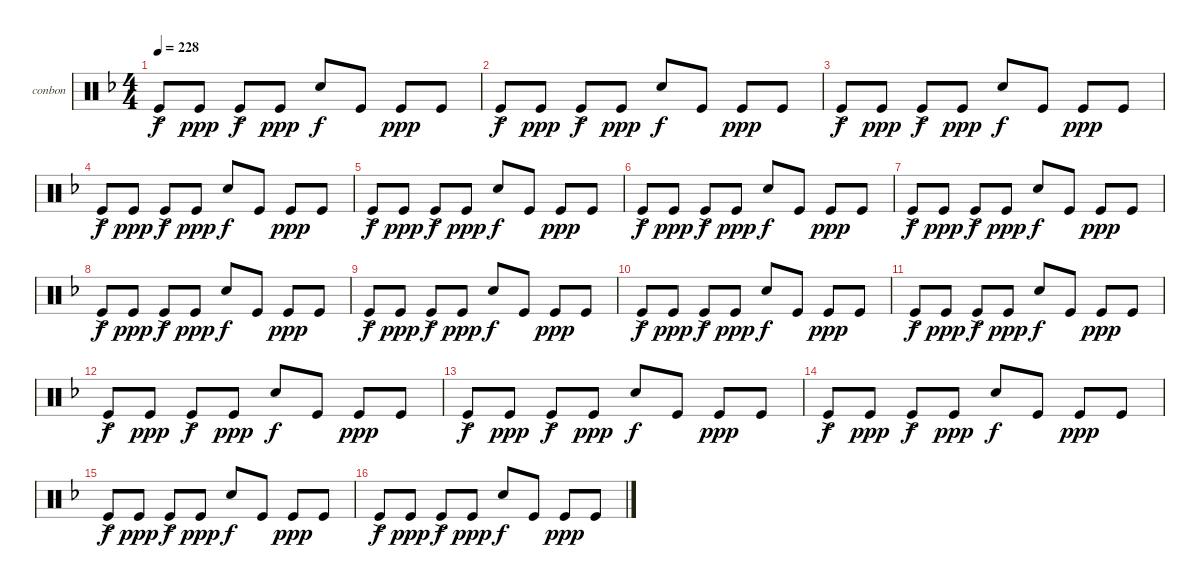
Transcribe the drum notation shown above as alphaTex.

\defaultSystemsLayout 4
\bracketExtendMode groupsimilarinstruments
\firstSystemTrackNameOrientation horizontal
\otherSystemsTrackNameOrientation horizontal
\track ("Bongos N Congas" "conbon") {instrument percussion}
\staff {score}
\articulation defaults
\ts (4 4)
\tempo 228
\clef neutral
\ks dminor "Kick (hit)"{ac}.8{dy f} "Kick (hit)".8{dy ppp} "Kick (hit)"{ac}.8{dy f} "Kick (hit)".8{dy ppp} "Snare (hit) 2".8{dy f} "Kick (hit)".8 "Kick (hit)".8{dy ppp} "Kick (hit)".8
|
"Kick (hit)"{ac}.8{dy f} "Kick (hit)".8{dy ppp} "Kick (hit)"{ac}.8{dy f} "Kick (hit)".8{dy ppp} "Snare (hit) 2".8{dy f} "Kick (hit)".8 "Kick (hit)".8{dy ppp} "Kick (hit)".8 |
"Kick (hit)"{ac}.8{dy f} "Kick (hit)".8{dy ppp} "Kick (hit)"{ac}.8{dy f} "Kick (hit)".8{dy ppp} "Snare (hit) 2".8{dy f} "Kick (hit)".8 "Kick (hit)".8{dy ppp} "Kick (hit)".8 |
"Kick (hit)"{ac}.8{dy f} "Kick (hit)".8{dy ppp} "Kick (hit)"{ac}.8{dy f} "Kick (hit)".8{dy ppp} "Snare (hit) 2".8{dy f} "Kick (hit)".8 "Kick (hit)".8{dy ppp} "Kick (hit)".8 |
"Kick (hit)"{ac}.8{dy f} "Kick (hit)".8{dy ppp} "Kick (hit)"{ac}.8{dy f} "Kick (hit)".8{dy ppp} "Snare (hit) 2".8{dy f} "Kick (hit)".8 "Kick (hit)".8{dy ppp} "Kick (hit)".8 |
"Kick (hit)"{ac}.8{dy f} "Kick (hit)".8{dy ppp} "Kick (hit)"{ac}.8{dy f} "Kick (hit)".8{dy ppp} "Snare (hit) 2".8{dy f} "Kick (hit)".8 "Kick (hit)".8{dy ppp} "Kick (hit)".8 |
"Kick (hit)"{ac}.8{dy f} "Kick (hit)".8{dy ppp} "Kick (hit)"{ac}.8{dy f} "Kick (hit)".8{dy ppp} "Snare (hit) 2".8{dy f} "Kick (hit)".8 "Kick (hit)".8{dy ppp} "Kick (hit)".8 |
"Kick (hit)"{ac}.8{dy f} "Kick (hit)".8{dy ppp} "Kick (hit)"{ac}.8{dy f} "Kick (hit)".8{dy ppp} "Snare (hit) 2".8{dy f} "Kick (hit)".8 "Kick (hit)".8{dy ppp} "Kick (hit)".8 |
"Kick (hit)"{ac}.8{dy f} "Kick (hit)".8{dy ppp} "Kick (hit)"{ac}.8{dy f} "Kick (hit)".8{dy ppp} "Snare (hit) 2".8{dy f} "Kick (hit)".8 "Kick (hit)".8{dy ppp} "Kick (hit)".8 |
"Kick (hit)"{ac}.8{dy f} "Kick (hit)".8{dy ppp} "Kick (hit)"{ac}.8{dy f} "Kick (hit)".8{dy ppp} "Snare (hit) 2".8{dy f} "Kick (hit)".8 "Kick (hit)".8{dy ppp} "Kick (hit)".8 |
"Kick (hit)"{ac}.8{dy f} "Kick (hit)".8{dy ppp} "Kick (hit)"{ac}.8{dy f} "Kick (hit)".8{dy ppp} "Snare (hit) 2".8{dy f} "Kick (hit)".8 "Kick (hit)".8{dy ppp} "Kick (hit)".8 |
"Kick (hit)"{ac}.8{dy f} "Kick (hit)".8{dy ppp} "Kick (hit)"{ac}.8{dy f} "Kick (hit)".8{dy ppp} "Snare (hit) 2".8{dy f} "Kick (hit)".8 "Kick (hit)".8{dy ppp} "Kick (hit)".8 |
"Kick (hit)"{ac}.8{dy f} "Kick (hit)".8{dy ppp} "Kick (hit)"{ac}.8{dy f} "Kick (hit)".8{dy ppp} "Snare (hit) 2".8{dy f} "Kick (hit)".8 "Kick (hit)".8{dy ppp} "Kick (hit)".8 |
"Kick (hit)"{ac}.8{dy f} "Kick (hit)".8{dy ppp} "Kick (hit)"{ac}.8{dy f} "Kick (hit)".8{dy ppp} "Snare (hit) 2".8{dy f} "Kick (hit)".8 "Kick (hit)".8{dy ppp} "Kick (hit)".8 |
"Kick (hit)"{ac}.8{dy f} "Kick (hit)".8{dy ppp} "Kick (hit)"{ac}.8{dy f} "Kick (hit)".8{dy ppp} "Snare (hit) 2".8{dy f} "Kick (hit)".8 "Kick (hit)".8{dy ppp} "Kick (hit)".8 |
"Kick (hit)"{ac}.8{dy f} "Kick (hit)".8{dy ppp} "Kick (hit)"{ac}.8{dy f} "Kick (hit)".8{dy ppp} "Snare (hit) 2".8{dy f} "Kick (hit)".8 "Kick (hit)".8{dy ppp} "Kick (hit)".8
